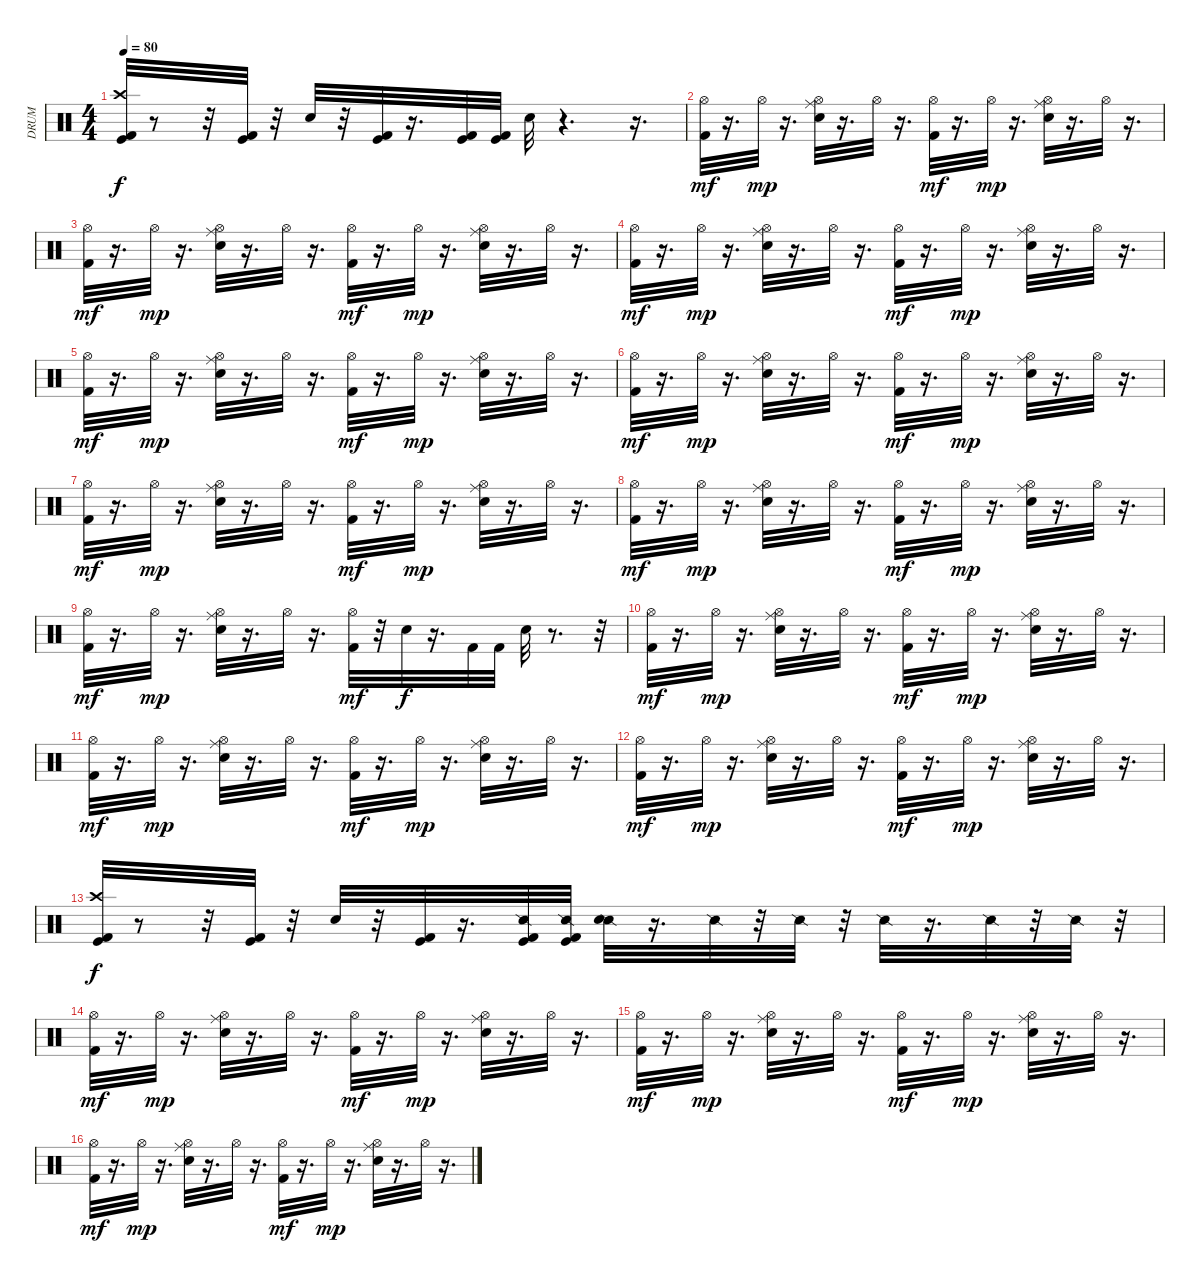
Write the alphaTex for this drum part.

\track ("DRUM" "DRUM") {instrument percussion}
\staff {score}
\articulation defaults
\ts (4 4)
\tempo 80
\clef neutral
\ks c
("Kick (hit) 2" "Crash high (hit)" "Kick (hit)").32{dy f} r.8 r.32 ("Kick (hit) 2" "Kick (hit)").32 r.32 "Electric Snare (hit)".32 r.32 ("Kick (hit) 2" "Kick (hit)").32 r.16{d} ("Kick (hit) 2" "Kick (hit)").32 ("Kick (hit) 2" "Kick (hit)").32 "Electric Snare (hit)".32 r.4{d} r.16{d} |
("Hi-Hat (open)" "Kick (hit) 2").32{dy mf} r.16{d} "Hi-Hat (open)".32{dy mp} r.16{d} ("Electric Snare (hit)" "Hi-Hat (open)" "Ride (middle)").32 r.16{d} "Hi-Hat (open)".32 r.16{d} ("Hi-Hat (open)" "Kick (hit) 2").32{dy mf} r.16{d} "Hi-Hat (open)".32{dy mp} r.16{d} ("Electric Snare (hit)" "Ride (middle)" "Hi-Hat (open)").32 r.16{d} "Hi-Hat (open)".32 r.16{d} |
("Kick (hit) 2" "Hi-Hat (open)").32{dy mf} r.16{d} "Hi-Hat (open)".32{dy mp} r.16{d} ("Hi-Hat (open)" "Electric Snare (hit)" "Ride (middle)").32 r.16{d} "Hi-Hat (open)".32 r.16{d} ("Kick (hit) 2" "Hi-Hat (open)").32{dy mf} r.16{d} "Hi-Hat (open)".32{dy mp} r.16{d} ("Ride (middle)" "Electric Snare (hit)" "Hi-Hat (open)").32 r.16{d} "Hi-Hat (open)".32 r.16{d} |
("Hi-Hat (open)" "Kick (hit) 2").32{dy mf} r.16{d} "Hi-Hat (open)".32{dy mp} r.16{d} ("Hi-Hat (open)" "Electric Snare (hit)" "Ride (middle)").32 r.16{d} "Hi-Hat (open)".32 r.16{d} ("Kick (hit) 2" "Hi-Hat (open)").32{dy mf} r.16{d} "Hi-Hat (open)".32{dy mp} r.16{d} ("Hi-Hat (open)" "Electric Snare (hit)" "Ride (middle)").32 r.16{d} "Hi-Hat (open)".32 r.16{d} |
("Kick (hit) 2" "Hi-Hat (open)").32{dy mf} r.16{d} "Hi-Hat (open)".32{dy mp} r.16{d} ("Ride (middle)" "Electric Snare (hit)" "Hi-Hat (open)").32 r.16{d} "Hi-Hat (open)".32 r.16{d} ("Kick (hit) 2" "Hi-Hat (open)").32{dy mf} r.16{d} "Hi-Hat (open)".32{dy mp} r.16{d} ("Electric Snare (hit)" "Hi-Hat (open)" "Ride (middle)").32 r.16{d} "Hi-Hat (open)".32 r.16{d} |
("Kick (hit) 2" "Hi-Hat (open)").32{dy mf} r.16{d} "Hi-Hat (open)".32{dy mp} r.16{d} ("Electric Snare (hit)" "Ride (middle)" "Hi-Hat (open)").32 r.16{d} "Hi-Hat (open)".32 r.16{d} ("Kick (hit) 2" "Hi-Hat (open)").32{dy mf} r.16{d} "Hi-Hat (open)".32{dy mp} r.16{d} ("Electric Snare (hit)" "Ride (middle)" "Hi-Hat (open)").32 r.16{d} "Hi-Hat (open)".32 r.16{d} |
("Kick (hit) 2" "Hi-Hat (open)").32{dy mf} r.16{d} "Hi-Hat (open)".32{dy mp} r.16{d} ("Hi-Hat (open)" "Electric Snare (hit)" "Ride (middle)").32 r.16{d} "Hi-Hat (open)".32 r.16{d} ("Hi-Hat (open)" "Kick (hit) 2").32{dy mf} r.16{d} "Hi-Hat (open)".32{dy mp} r.16{d} ("Hi-Hat (open)" "Ride (middle)" "Electric Snare (hit)").32 r.16{d} "Hi-Hat (open)".32 r.16{d} |
("Hi-Hat (open)" "Kick (hit) 2").32{dy mf} r.16{d} "Hi-Hat (open)".32{dy mp} r.16{d} ("Hi-Hat (open)" "Electric Snare (hit)" "Ride (middle)").32 r.16{d} "Hi-Hat (open)".32 r.16{d} ("Kick (hit) 2" "Hi-Hat (open)").32{dy mf} r.16{d} "Hi-Hat (open)".32{dy mp} r.16{d} ("Electric Snare (hit)" "Ride (middle)" "Hi-Hat (open)").32 r.16{d} "Hi-Hat (open)".32 r.16{d} |
("Hi-Hat (open)" "Kick (hit) 2").32{dy mf} r.16{d} "Hi-Hat (open)".32{dy mp} r.16{d} ("Hi-Hat (open)" "Ride (middle)" "Electric Snare (hit)").32 r.16{d} "Hi-Hat (open)".32 r.16{d} ("Kick (hit) 2" "Hi-Hat (open)").32{dy mf} r.32 "Electric Snare (hit)".32{dy f} r.16{d} "Kick (hit) 2".32 "Kick (hit) 2".32 "Electric Snare (hit)".32 r.8{d} r.32 |
("Kick (hit) 2" "Hi-Hat (open)").32{dy mf} r.16{d} "Hi-Hat (open)".32{dy mp} r.16{d} ("Hi-Hat (open)" "Ride (middle)" "Electric Snare (hit)").32 r.16{d} "Hi-Hat (open)".32 r.16{d} ("Kick (hit) 2" "Hi-Hat (open)").32{dy mf} r.16{d} "Hi-Hat (open)".32{dy mp} r.16{d} ("Hi-Hat (open)" "Electric Snare (hit)" "Ride (middle)").32 r.16{d} "Hi-Hat (open)".32 r.16{d} |
("Hi-Hat (open)" "Kick (hit) 2").32{dy mf} r.16{d} "Hi-Hat (open)".32{dy mp} r.16{d} ("Ride (middle)" "Hi-Hat (open)" "Electric Snare (hit)").32 r.16{d} "Hi-Hat (open)".32 r.16{d} ("Hi-Hat (open)" "Kick (hit) 2").32{dy mf} r.16{d} "Hi-Hat (open)".32{dy mp} r.16{d} ("Electric Snare (hit)" "Ride (middle)" "Hi-Hat (open)").32 r.16{d} "Hi-Hat (open)".32 r.16{d} |
("Hi-Hat (open)" "Kick (hit) 2").32{dy mf} r.16{d} "Hi-Hat (open)".32{dy mp} r.16{d} ("Ride (middle)" "Hi-Hat (open)" "Electric Snare (hit)").32 r.16{d} "Hi-Hat (open)".32 r.16{d} ("Hi-Hat (open)" "Kick (hit) 2").32{dy mf} r.16{d} "Hi-Hat (open)".32{dy mp} r.16{d} ("Electric Snare (hit)" "Ride (middle)" "Hi-Hat (open)").32 r.16{d} "Hi-Hat (open)".32 r.16{d} |
("Kick (hit) 2" "Crash high (hit)" "Kick (hit)").32{dy f} r.8 r.32 ("Kick (hit) 2" "Kick (hit)").32 r.32 "Electric Snare (hit)".32 r.32 ("Kick (hit) 2" "Kick (hit)").32 r.16{d} ("Snare (side stick) 2" "Kick (hit) 2" "Kick (hit)").32 ("Kick (hit) 2" "Kick (hit)" "Snare (side stick) 2").32 ("Snare (side stick) 2" "Electric Snare (hit)").32 r.16{d} "Snare (side stick) 2".32 r.32 "Snare (side stick) 2".32 r.32 "Snare (side stick) 2".32 r.16{d} "Snare (side stick) 2".32 r.32 "Snare (side stick) 2".32 r.32 |
("Kick (hit) 2" "Hi-Hat (open)").32{dy mf} r.16{d} "Hi-Hat (open)".32{dy mp} r.16{d} ("Hi-Hat (open)" "Ride (middle)" "Electric Snare (hit)").32 r.16{d} "Hi-Hat (open)".32 r.16{d} ("Kick (hit) 2" "Hi-Hat (open)").32{dy mf} r.16{d} "Hi-Hat (open)".32{dy mp} r.16{d} ("Hi-Hat (open)" "Electric Snare (hit)" "Ride (middle)").32 r.16{d} "Hi-Hat (open)".32 r.16{d} |
("Hi-Hat (open)" "Kick (hit) 2").32{dy mf} r.16{d} "Hi-Hat (open)".32{dy mp} r.16{d} ("Ride (middle)" "Hi-Hat (open)" "Electric Snare (hit)").32 r.16{d} "Hi-Hat (open)".32 r.16{d} ("Hi-Hat (open)" "Kick (hit) 2").32{dy mf} r.16{d} "Hi-Hat (open)".32{dy mp} r.16{d} ("Electric Snare (hit)" "Ride (middle)" "Hi-Hat (open)").32 r.16{d} "Hi-Hat (open)".32 r.16{d} |
("Hi-Hat (open)" "Kick (hit) 2").32{dy mf} r.16{d} "Hi-Hat (open)".32{dy mp} r.16{d} ("Ride (middle)" "Hi-Hat (open)" "Electric Snare (hit)").32 r.16{d} "Hi-Hat (open)".32 r.16{d} ("Hi-Hat (open)" "Kick (hit) 2").32{dy mf} r.16{d} "Hi-Hat (open)".32{dy mp} r.16{d} ("Electric Snare (hit)" "Ride (middle)" "Hi-Hat (open)").32 r.16{d} "Hi-Hat (open)".32 r.16{d}
